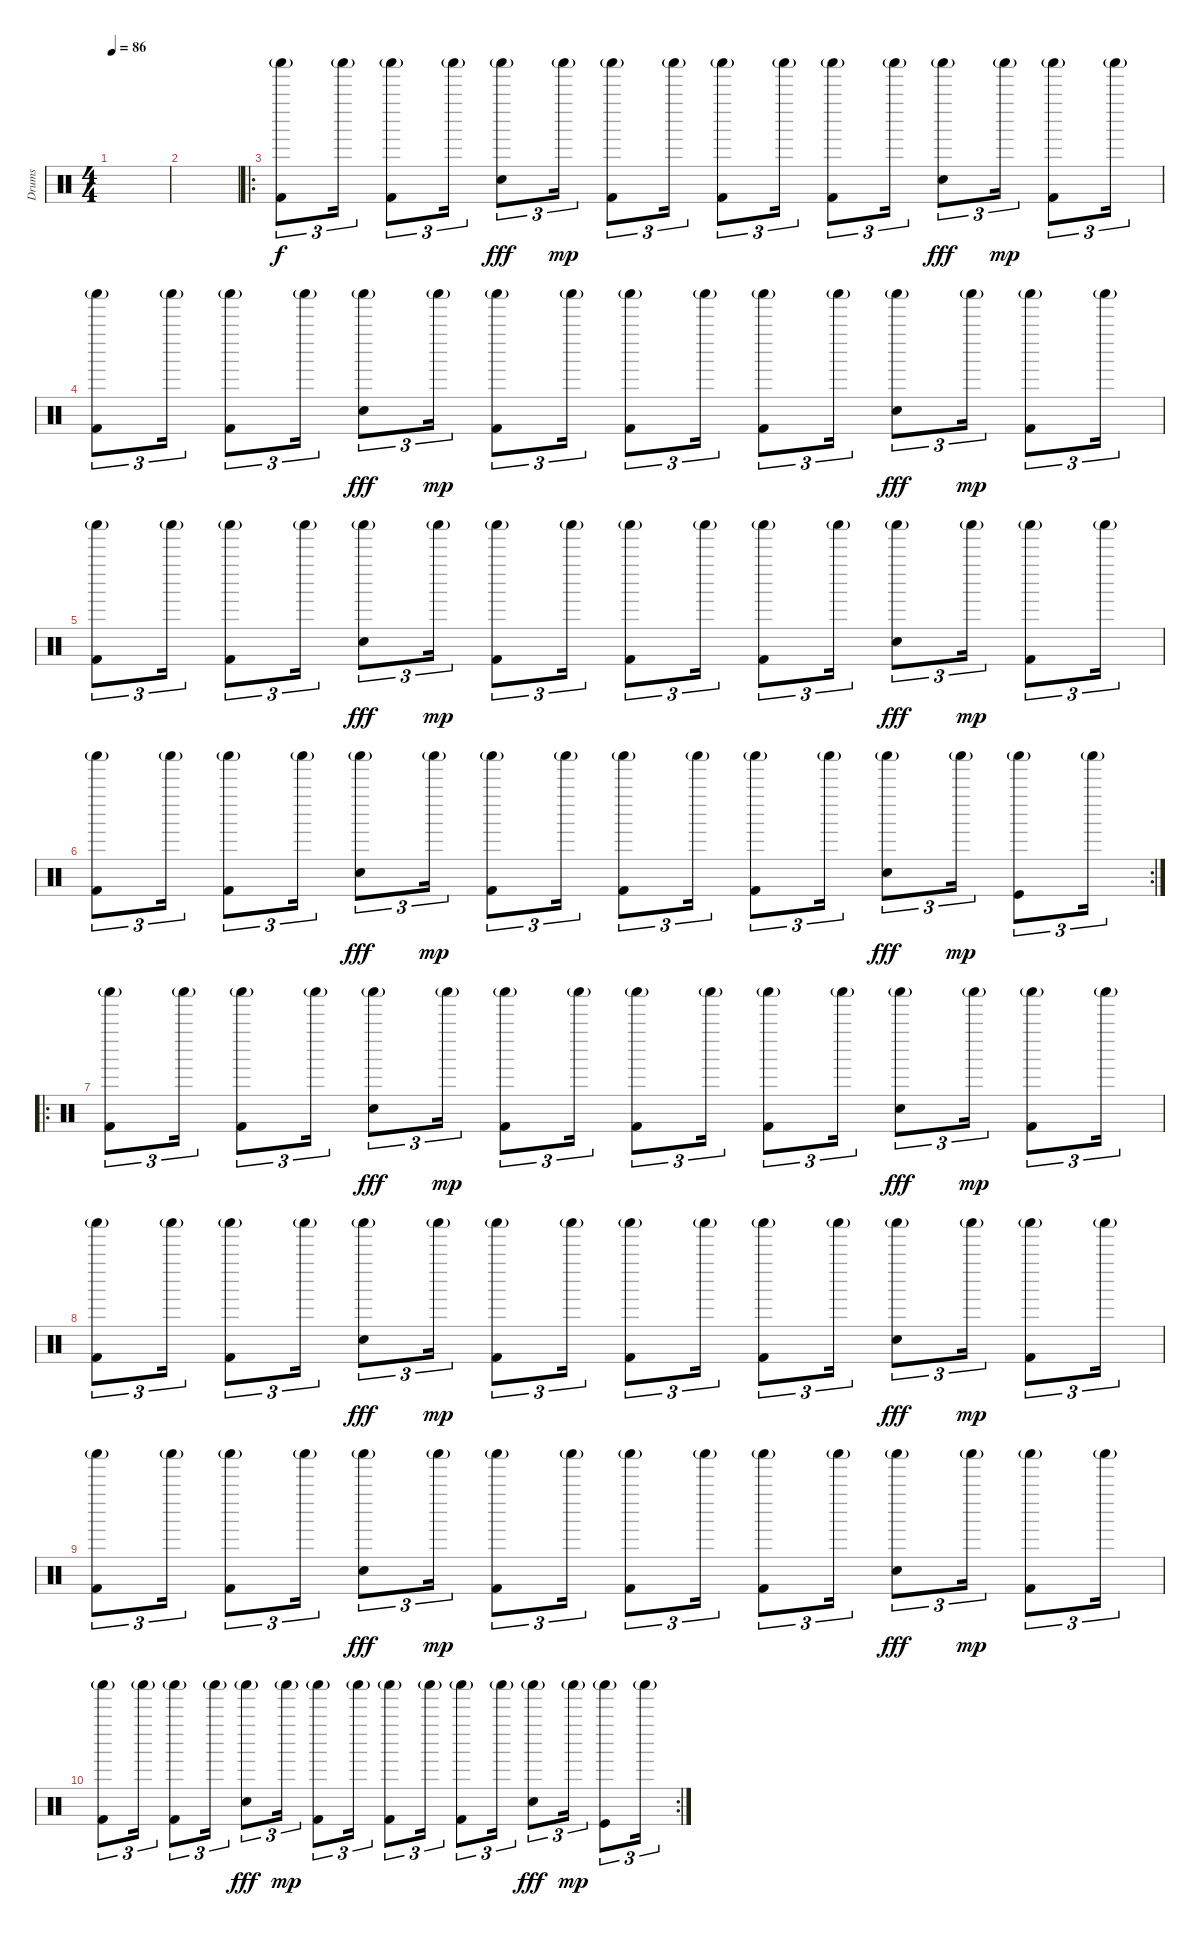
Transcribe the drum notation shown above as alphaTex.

\track ("Drums" "Drums") {instrument percussion}
\staff {score}
\articulation defaults
\ts (4 4)
\tempo 86
\clef neutral
\ks c
|
|
\ro
("Shaker (hit)"{g} "Kick (hit) 2").8{tu (3 2)} "Shaker (hit)"{g}.16{tu (3 2)} ("Shaker (hit)"{g} "Kick (hit) 2").8{tu (3 2)} "Shaker (hit)"{g}.16{tu (3 2)} ("Shaker (hit)"{g} "Electric Snare (hit)").8{tu (3 2) dy fff} "Shaker (hit)"{g}.16{tu (3 2) dy mp} ("Shaker (hit)"{g} "Kick (hit) 2").8{tu (3 2)} "Shaker (hit)"{g}.16{tu (3 2)} ("Shaker (hit)"{g} "Kick (hit) 2").8{tu (3 2)} "Shaker (hit)"{g}.16{tu (3 2)} ("Shaker (hit)"{g} "Kick (hit) 2").8{tu (3 2)} "Shaker (hit)"{g}.16{tu (3 2)} ("Shaker (hit)"{g} "Electric Snare (hit)").8{tu (3 2) dy fff} "Shaker (hit)"{g}.16{tu (3 2) dy mp} ("Shaker (hit)"{g} "Kick (hit) 2").8{tu (3 2)} "Shaker (hit)"{g}.16{tu (3 2)} |
("Shaker (hit)"{g} "Kick (hit) 2").8{tu (3 2)} "Shaker (hit)"{g}.16{tu (3 2)} ("Shaker (hit)"{g} "Kick (hit) 2").8{tu (3 2)} "Shaker (hit)"{g}.16{tu (3 2)} ("Shaker (hit)"{g} "Electric Snare (hit)").8{tu (3 2) dy fff} "Shaker (hit)"{g}.16{tu (3 2) dy mp} ("Shaker (hit)"{g} "Kick (hit) 2").8{tu (3 2)} "Shaker (hit)"{g}.16{tu (3 2)} ("Shaker (hit)"{g} "Kick (hit) 2").8{tu (3 2)} "Shaker (hit)"{g}.16{tu (3 2)} ("Shaker (hit)"{g} "Kick (hit) 2").8{tu (3 2)} "Shaker (hit)"{g}.16{tu (3 2)} ("Shaker (hit)"{g} "Electric Snare (hit)").8{tu (3 2) dy fff} "Shaker (hit)"{g}.16{tu (3 2) dy mp} ("Shaker (hit)"{g} "Kick (hit) 2").8{tu (3 2)} "Shaker (hit)"{g}.16{tu (3 2)} |
("Shaker (hit)"{g} "Kick (hit) 2").8{tu (3 2)} "Shaker (hit)"{g}.16{tu (3 2)} ("Shaker (hit)"{g} "Kick (hit) 2").8{tu (3 2)} "Shaker (hit)"{g}.16{tu (3 2)} ("Shaker (hit)"{g} "Electric Snare (hit)").8{tu (3 2) dy fff} "Shaker (hit)"{g}.16{tu (3 2) dy mp} ("Shaker (hit)"{g} "Kick (hit) 2").8{tu (3 2)} "Shaker (hit)"{g}.16{tu (3 2)} ("Shaker (hit)"{g} "Kick (hit) 2").8{tu (3 2)} "Shaker (hit)"{g}.16{tu (3 2)} ("Shaker (hit)"{g} "Kick (hit) 2").8{tu (3 2)} "Shaker (hit)"{g}.16{tu (3 2)} ("Shaker (hit)"{g} "Electric Snare (hit)").8{tu (3 2) dy fff} "Shaker (hit)"{g}.16{tu (3 2) dy mp} ("Shaker (hit)"{g} "Kick (hit) 2").8{tu (3 2)} "Shaker (hit)"{g}.16{tu (3 2)} |
\rc 2
("Shaker (hit)"{g} "Kick (hit) 2").8{tu (3 2)} "Shaker (hit)"{g}.16{tu (3 2)} ("Shaker (hit)"{g} "Kick (hit) 2").8{tu (3 2)} "Shaker (hit)"{g}.16{tu (3 2)} ("Shaker (hit)"{g} "Electric Snare (hit)").8{tu (3 2) dy fff} "Shaker (hit)"{g}.16{tu (3 2) dy mp} ("Shaker (hit)"{g} "Kick (hit) 2").8{tu (3 2)} "Shaker (hit)"{g}.16{tu (3 2)} ("Shaker (hit)"{g} "Kick (hit) 2").8{tu (3 2)} "Shaker (hit)"{g}.16{tu (3 2)} ("Shaker (hit)"{g} "Kick (hit) 2").8{tu (3 2)} "Shaker (hit)"{g}.16{tu (3 2)} ("Shaker (hit)"{g} "Electric Snare (hit)").8{tu (3 2) dy fff} "Shaker (hit)"{g}.16{tu (3 2) dy mp} ("Shaker (hit)"{g} "Kick (hit)").8{tu (3 2)} "Shaker (hit)"{g}.16{tu (3 2)} |
\ro
("Shaker (hit)"{g} "Kick (hit) 2").8{tu (3 2)} "Shaker (hit)"{g}.16{tu (3 2)} ("Shaker (hit)"{g} "Kick (hit) 2").8{tu (3 2)} "Shaker (hit)"{g}.16{tu (3 2)} ("Shaker (hit)"{g} "Electric Snare (hit)").8{tu (3 2) dy fff} "Shaker (hit)"{g}.16{tu (3 2) dy mp} ("Shaker (hit)"{g} "Kick (hit) 2").8{tu (3 2)} "Shaker (hit)"{g}.16{tu (3 2)} ("Shaker (hit)"{g} "Kick (hit) 2").8{tu (3 2)} "Shaker (hit)"{g}.16{tu (3 2)} ("Shaker (hit)"{g} "Kick (hit) 2").8{tu (3 2)} "Shaker (hit)"{g}.16{tu (3 2)} ("Shaker (hit)"{g} "Electric Snare (hit)").8{tu (3 2) dy fff} "Shaker (hit)"{g}.16{tu (3 2) dy mp} ("Shaker (hit)"{g} "Kick (hit) 2").8{tu (3 2)} "Shaker (hit)"{g}.16{tu (3 2)} |
("Shaker (hit)"{g} "Kick (hit) 2").8{tu (3 2)} "Shaker (hit)"{g}.16{tu (3 2)} ("Shaker (hit)"{g} "Kick (hit) 2").8{tu (3 2)} "Shaker (hit)"{g}.16{tu (3 2)} ("Shaker (hit)"{g} "Electric Snare (hit)").8{tu (3 2) dy fff} "Shaker (hit)"{g}.16{tu (3 2) dy mp} ("Shaker (hit)"{g} "Kick (hit) 2").8{tu (3 2)} "Shaker (hit)"{g}.16{tu (3 2)} ("Shaker (hit)"{g} "Kick (hit) 2").8{tu (3 2)} "Shaker (hit)"{g}.16{tu (3 2)} ("Shaker (hit)"{g} "Kick (hit) 2").8{tu (3 2)} "Shaker (hit)"{g}.16{tu (3 2)} ("Shaker (hit)"{g} "Electric Snare (hit)").8{tu (3 2) dy fff} "Shaker (hit)"{g}.16{tu (3 2) dy mp} ("Shaker (hit)"{g} "Kick (hit) 2").8{tu (3 2)} "Shaker (hit)"{g}.16{tu (3 2)} |
("Shaker (hit)"{g} "Kick (hit) 2").8{tu (3 2)} "Shaker (hit)"{g}.16{tu (3 2)} ("Shaker (hit)"{g} "Kick (hit) 2").8{tu (3 2)} "Shaker (hit)"{g}.16{tu (3 2)} ("Shaker (hit)"{g} "Electric Snare (hit)").8{tu (3 2) dy fff} "Shaker (hit)"{g}.16{tu (3 2) dy mp} ("Shaker (hit)"{g} "Kick (hit) 2").8{tu (3 2)} "Shaker (hit)"{g}.16{tu (3 2)} ("Shaker (hit)"{g} "Kick (hit) 2").8{tu (3 2)} "Shaker (hit)"{g}.16{tu (3 2)} ("Shaker (hit)"{g} "Kick (hit) 2").8{tu (3 2)} "Shaker (hit)"{g}.16{tu (3 2)} ("Shaker (hit)"{g} "Electric Snare (hit)").8{tu (3 2) dy fff} "Shaker (hit)"{g}.16{tu (3 2) dy mp} ("Shaker (hit)"{g} "Kick (hit) 2").8{tu (3 2)} "Shaker (hit)"{g}.16{tu (3 2)} |
\rc 2
("Shaker (hit)"{g} "Kick (hit) 2").8{tu (3 2)} "Shaker (hit)"{g}.16{tu (3 2)} ("Shaker (hit)"{g} "Kick (hit) 2").8{tu (3 2)} "Shaker (hit)"{g}.16{tu (3 2)} ("Shaker (hit)"{g} "Electric Snare (hit)").8{tu (3 2) dy fff} "Shaker (hit)"{g}.16{tu (3 2) dy mp} ("Shaker (hit)"{g} "Kick (hit) 2").8{tu (3 2)} "Shaker (hit)"{g}.16{tu (3 2)} ("Shaker (hit)"{g} "Kick (hit) 2").8{tu (3 2)} "Shaker (hit)"{g}.16{tu (3 2)} ("Shaker (hit)"{g} "Kick (hit) 2").8{tu (3 2)} "Shaker (hit)"{g}.16{tu (3 2)} ("Shaker (hit)"{g} "Electric Snare (hit)").8{tu (3 2) dy fff} "Shaker (hit)"{g}.16{tu (3 2) dy mp} ("Shaker (hit)"{g} "Kick (hit)").8{tu (3 2)} "Shaker (hit)"{g}.16{tu (3 2)}
